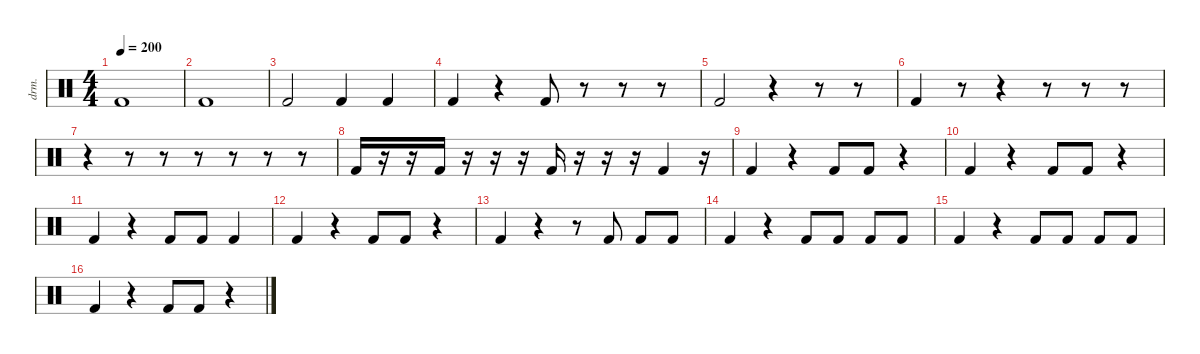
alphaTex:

\defaultSystemsLayout 4
\hideDynamics
\bracketExtendMode nobrackets
\track ("Percussion" "drm.") {instrument percussion}
\staff {score}
\articulation defaults
\ts (4 4)
\tempo 200
\clef neutral
\ks c "Kick (hit) 2".1{dy ff}
|
"Kick (hit) 2".1 |
"Kick (hit) 2".2 "Kick (hit) 2".4 "Kick (hit) 2".4 |
"Kick (hit) 2".4 r.4 "Kick (hit) 2".8 r.8 r.8 r.8 |
"Kick (hit) 2".2 r.4 r.8 r.8 |
"Kick (hit) 2".4 r.8 r.4 r.8 r.8 r.8 |
r.4 r.8 r.8 r.8 r.8 r.8 r.8 |
"Kick (hit) 2".16 r.16 r.16 "Kick (hit) 2".16 r.16 r.16 r.16 "Kick (hit) 2".16 r.16 r.16 r.16 "Kick (hit) 2".4 r.16 |
"Kick (hit) 2".4 r.4 "Kick (hit) 2".8 "Kick (hit) 2".8 r.4 |
"Kick (hit) 2".4 r.4 "Kick (hit) 2".8 "Kick (hit) 2".8 r.4 |
"Kick (hit) 2".4 r.4 "Kick (hit) 2".8 "Kick (hit) 2".8 "Kick (hit) 2".4 |
"Kick (hit) 2".4 r.4 "Kick (hit) 2".8 "Kick (hit) 2".8 r.4 |
"Kick (hit) 2".4 r.4 r.8 "Kick (hit) 2".8 "Kick (hit) 2".8 "Kick (hit) 2".8 |
"Kick (hit) 2".4 r.4 "Kick (hit) 2".8 "Kick (hit) 2".8 "Kick (hit) 2".8 "Kick (hit) 2".8 |
"Kick (hit) 2".4 r.4 "Kick (hit) 2".8 "Kick (hit) 2".8 "Kick (hit) 2".8 "Kick (hit) 2".8 |
"Kick (hit) 2".4 r.4 "Kick (hit) 2".8 "Kick (hit) 2".8 r.4
